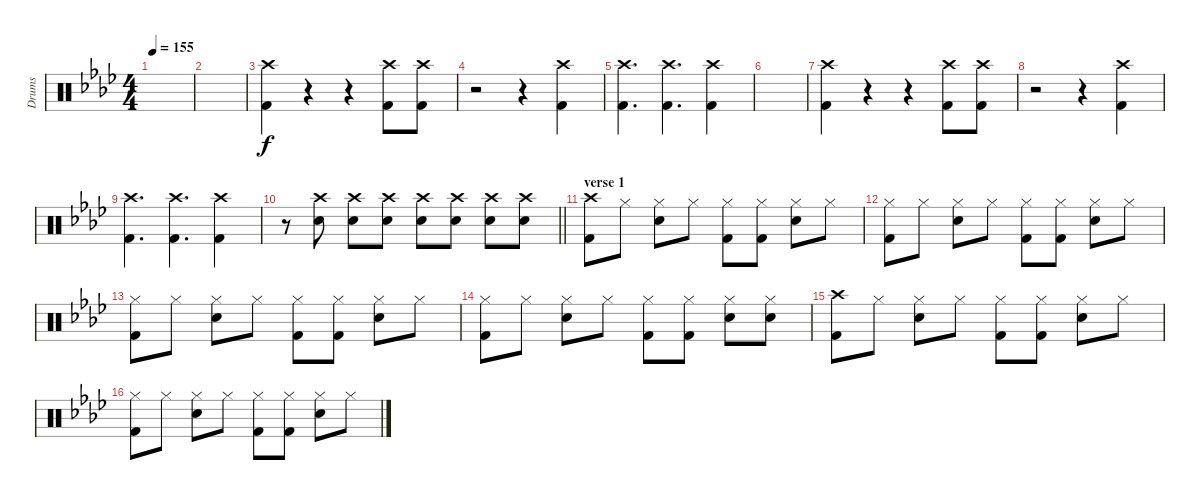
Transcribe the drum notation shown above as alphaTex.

\track ("Drums" "Drums") {instrument percussion}
\staff {score}
\articulation defaults
\ts (4 4)
\tempo 155
\clef neutral
\ks fminor
|
|
("Crash high (hit)" "Kick (hit) 2").4 r.4 r.4 ("Crash high (hit)" "Kick (hit) 2").8 ("Crash high (hit)" "Kick (hit) 2").8 |
r.2 r.4 ("Crash high (hit)" "Kick (hit) 2").4 |
("Crash high (hit)" "Kick (hit) 2").4{d} ("Crash high (hit)" "Kick (hit) 2").4{d} ("Crash high (hit)" "Kick (hit) 2").4 |
|
("Crash high (hit)" "Kick (hit) 2").4 r.4 r.4 ("Crash high (hit)" "Kick (hit) 2").8 ("Crash high (hit)" "Kick (hit) 2").8 |
r.2 r.4 ("Crash high (hit)" "Kick (hit) 2").4 |
("Crash high (hit)" "Kick (hit) 2").4{d} ("Crash high (hit)" "Kick (hit) 2").4{d} ("Crash high (hit)" "Kick (hit) 2").4 |
\barLineRight lightlight
r.8 ("Crash high (hit)" "Snare (hit) 2").8 ("Crash high (hit)" "Snare (hit) 2").8 ("Crash high (hit)" "Snare (hit) 2").8 ("Crash high (hit)" "Snare (hit) 2").8 ("Crash high (hit)" "Snare (hit) 2").8 ("Crash high (hit)" "Snare (hit) 2").8 ("Crash high (hit)" "Snare (hit) 2").8 |
\section ("" "verse 1")
("Crash high (hit)" "Kick (hit) 2").8 "Hi-Hat (closed)".8 ("Hi-Hat (closed)" "Snare (hit) 2").8 "Hi-Hat (closed)".8 ("Hi-Hat (closed)" "Kick (hit) 2").8 ("Hi-Hat (closed)" "Kick (hit) 2").8 ("Hi-Hat (closed)" "Snare (hit) 2").8 "Hi-Hat (closed)".8 |
("Hi-Hat (closed)" "Kick (hit) 2").8 "Hi-Hat (closed)".8 ("Hi-Hat (closed)" "Snare (hit) 2").8 "Hi-Hat (closed)".8 ("Hi-Hat (closed)" "Kick (hit) 2").8 ("Hi-Hat (closed)" "Kick (hit) 2").8 ("Hi-Hat (closed)" "Snare (hit) 2").8 "Hi-Hat (closed)".8 |
("Hi-Hat (closed)" "Kick (hit) 2").8 "Hi-Hat (closed)".8 ("Hi-Hat (closed)" "Snare (hit) 2").8 "Hi-Hat (closed)".8 ("Hi-Hat (closed)" "Kick (hit) 2").8 ("Hi-Hat (closed)" "Kick (hit) 2").8 ("Hi-Hat (closed)" "Snare (hit) 2").8 "Hi-Hat (closed)".8 |
("Hi-Hat (closed)" "Kick (hit) 2").8 "Hi-Hat (closed)".8 ("Hi-Hat (closed)" "Snare (hit) 2").8 "Hi-Hat (closed)".8 ("Hi-Hat (closed)" "Kick (hit) 2").8 ("Hi-Hat (closed)" "Kick (hit) 2").8 ("Hi-Hat (closed)" "Snare (hit) 2").8 ("Hi-Hat (closed)" "Snare (hit) 2").8 |
("Crash high (hit)" "Kick (hit) 2").8 "Hi-Hat (closed)".8 ("Hi-Hat (closed)" "Snare (hit) 2").8 "Hi-Hat (closed)".8 ("Hi-Hat (closed)" "Kick (hit) 2").8 ("Hi-Hat (closed)" "Kick (hit) 2").8 ("Hi-Hat (closed)" "Snare (hit) 2").8 "Hi-Hat (closed)".8 |
("Hi-Hat (closed)" "Kick (hit) 2").8 "Hi-Hat (closed)".8 ("Hi-Hat (closed)" "Snare (hit) 2").8 "Hi-Hat (closed)".8 ("Hi-Hat (closed)" "Kick (hit) 2").8 ("Hi-Hat (closed)" "Kick (hit) 2").8 ("Hi-Hat (closed)" "Snare (hit) 2").8 "Hi-Hat (closed)".8
